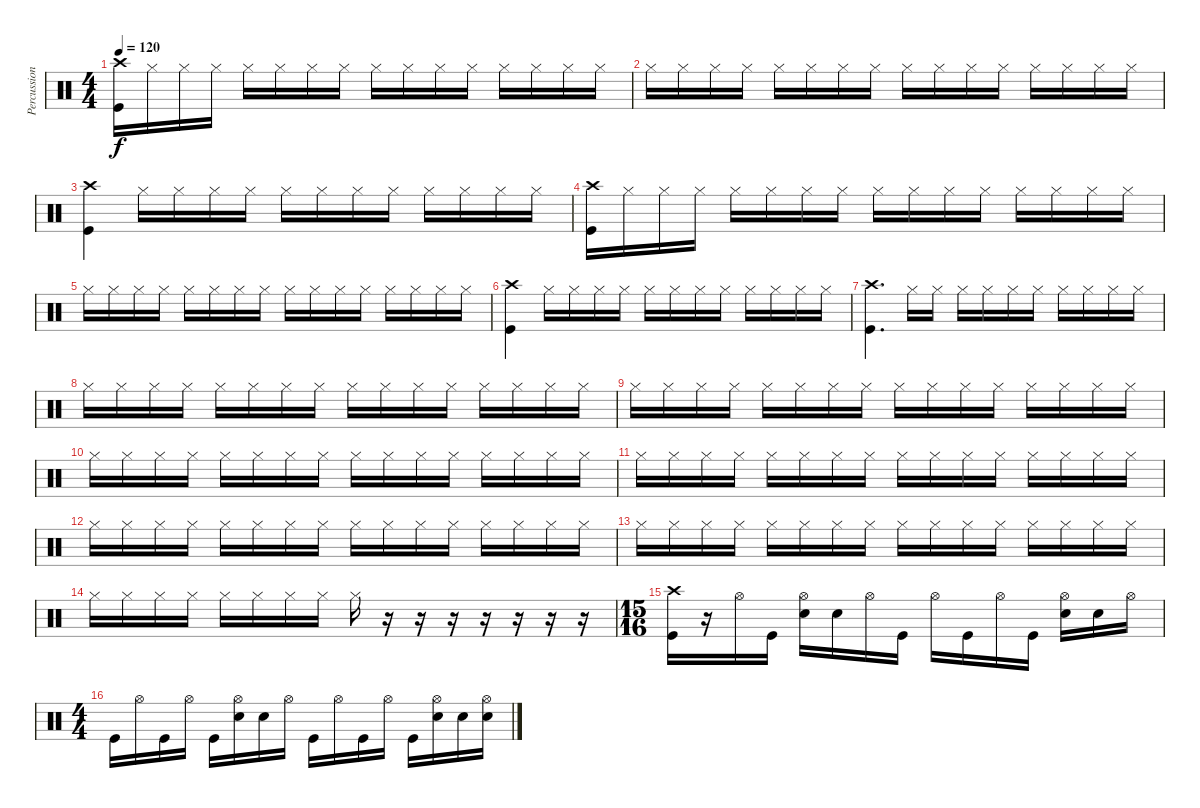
\track ("Percussion" "Percussion") {instrument percussion}
\staff {score}
\articulation defaults
\ts (4 4)
\tempo 120
\clef neutral
\ks c
("Crash high (hit)" "Kick (hit)").16{dy f} "Hi-Hat (closed)".16 "Hi-Hat (closed)".16 "Hi-Hat (closed)".16 "Hi-Hat (closed)".16 "Hi-Hat (closed)".16 "Hi-Hat (closed)".16 "Hi-Hat (closed)".16 "Hi-Hat (closed)".16 "Hi-Hat (closed)".16 "Hi-Hat (closed)".16 "Hi-Hat (closed)".16 "Hi-Hat (closed)".16 "Hi-Hat (closed)".16 "Hi-Hat (closed)".16 "Hi-Hat (closed)".16 |
"Hi-Hat (closed)".16 "Hi-Hat (closed)".16 "Hi-Hat (closed)".16 "Hi-Hat (closed)".16 "Hi-Hat (closed)".16 "Hi-Hat (closed)".16 "Hi-Hat (closed)".16 "Hi-Hat (closed)".16 "Hi-Hat (closed)".16 "Hi-Hat (closed)".16 "Hi-Hat (closed)".16 "Hi-Hat (closed)".16 "Hi-Hat (closed)".16 "Hi-Hat (closed)".16 "Hi-Hat (closed)".16 "Hi-Hat (closed)".16 |
("Crash high (hit)" "Kick (hit)").4 "Hi-Hat (closed)".16 "Hi-Hat (closed)".16 "Hi-Hat (closed)".16 "Hi-Hat (closed)".16 "Hi-Hat (closed)".16 "Hi-Hat (closed)".16 "Hi-Hat (closed)".16 "Hi-Hat (closed)".16 "Hi-Hat (closed)".16 "Hi-Hat (closed)".16 "Hi-Hat (closed)".16 "Hi-Hat (closed)".16 |
("Crash high (hit)" "Kick (hit)").16 "Hi-Hat (closed)".16 "Hi-Hat (closed)".16 "Hi-Hat (closed)".16 "Hi-Hat (closed)".16 "Hi-Hat (closed)".16 "Hi-Hat (closed)".16 "Hi-Hat (closed)".16 "Hi-Hat (closed)".16 "Hi-Hat (closed)".16 "Hi-Hat (closed)".16 "Hi-Hat (closed)".16 "Hi-Hat (closed)".16 "Hi-Hat (closed)".16 "Hi-Hat (closed)".16 "Hi-Hat (closed)".16 |
"Hi-Hat (closed)".16 "Hi-Hat (closed)".16 "Hi-Hat (closed)".16 "Hi-Hat (closed)".16 "Hi-Hat (closed)".16 "Hi-Hat (closed)".16 "Hi-Hat (closed)".16 "Hi-Hat (closed)".16 "Hi-Hat (closed)".16 "Hi-Hat (closed)".16 "Hi-Hat (closed)".16 "Hi-Hat (closed)".16 "Hi-Hat (closed)".16 "Hi-Hat (closed)".16 "Hi-Hat (closed)".16 "Hi-Hat (closed)".16 |
("Crash high (hit)" "Kick (hit)").4 "Hi-Hat (closed)".16 "Hi-Hat (closed)".16 "Hi-Hat (closed)".16 "Hi-Hat (closed)".16 "Hi-Hat (closed)".16 "Hi-Hat (closed)".16 "Hi-Hat (closed)".16 "Hi-Hat (closed)".16 "Hi-Hat (closed)".16 "Hi-Hat (closed)".16 "Hi-Hat (closed)".16 "Hi-Hat (closed)".16 |
("Crash high (hit)" "Kick (hit)").4{d} "Hi-Hat (closed)".16 "Hi-Hat (closed)".16 "Hi-Hat (closed)".16 "Hi-Hat (closed)".16 "Hi-Hat (closed)".16 "Hi-Hat (closed)".16 "Hi-Hat (closed)".16 "Hi-Hat (closed)".16 "Hi-Hat (closed)".16 "Hi-Hat (closed)".16 |
"Hi-Hat (closed)".16 "Hi-Hat (closed)".16 "Hi-Hat (closed)".16 "Hi-Hat (closed)".16 "Hi-Hat (closed)".16 "Hi-Hat (closed)".16 "Hi-Hat (closed)".16 "Hi-Hat (closed)".16 "Hi-Hat (closed)".16 "Hi-Hat (closed)".16 "Hi-Hat (closed)".16 "Hi-Hat (closed)".16 "Hi-Hat (closed)".16 "Hi-Hat (closed)".16 "Hi-Hat (closed)".16 "Hi-Hat (closed)".16 |
"Hi-Hat (closed)".16 "Hi-Hat (closed)".16 "Hi-Hat (closed)".16 "Hi-Hat (closed)".16 "Hi-Hat (closed)".16 "Hi-Hat (closed)".16 "Hi-Hat (closed)".16 "Hi-Hat (closed)".16 "Hi-Hat (closed)".16 "Hi-Hat (closed)".16 "Hi-Hat (closed)".16 "Hi-Hat (closed)".16 "Hi-Hat (closed)".16 "Hi-Hat (closed)".16 "Hi-Hat (closed)".16 "Hi-Hat (closed)".16 |
"Hi-Hat (closed)".16 "Hi-Hat (closed)".16 "Hi-Hat (closed)".16 "Hi-Hat (closed)".16 "Hi-Hat (closed)".16 "Hi-Hat (closed)".16 "Hi-Hat (closed)".16 "Hi-Hat (closed)".16 "Hi-Hat (closed)".16 "Hi-Hat (closed)".16 "Hi-Hat (closed)".16 "Hi-Hat (closed)".16 "Hi-Hat (closed)".16 "Hi-Hat (closed)".16 "Hi-Hat (closed)".16 "Hi-Hat (closed)".16 |
"Hi-Hat (closed)".16 "Hi-Hat (closed)".16 "Hi-Hat (closed)".16 "Hi-Hat (closed)".16 "Hi-Hat (closed)".16 "Hi-Hat (closed)".16 "Hi-Hat (closed)".16 "Hi-Hat (closed)".16 "Hi-Hat (closed)".16 "Hi-Hat (closed)".16 "Hi-Hat (closed)".16 "Hi-Hat (closed)".16 "Hi-Hat (closed)".16 "Hi-Hat (closed)".16 "Hi-Hat (closed)".16 "Hi-Hat (closed)".16 |
"Hi-Hat (closed)".16 "Hi-Hat (closed)".16 "Hi-Hat (closed)".16 "Hi-Hat (closed)".16 "Hi-Hat (closed)".16 "Hi-Hat (closed)".16 "Hi-Hat (closed)".16 "Hi-Hat (closed)".16 "Hi-Hat (closed)".16 "Hi-Hat (closed)".16 "Hi-Hat (closed)".16 "Hi-Hat (closed)".16 "Hi-Hat (closed)".16 "Hi-Hat (closed)".16 "Hi-Hat (closed)".16 "Hi-Hat (closed)".16 |
"Hi-Hat (closed)".16 "Hi-Hat (closed)".16 "Hi-Hat (closed)".16 "Hi-Hat (closed)".16 "Hi-Hat (closed)".16 "Hi-Hat (closed)".16 "Hi-Hat (closed)".16 "Hi-Hat (closed)".16 "Hi-Hat (closed)".16 "Hi-Hat (closed)".16 "Hi-Hat (closed)".16 "Hi-Hat (closed)".16 "Hi-Hat (closed)".16 "Hi-Hat (closed)".16 "Hi-Hat (closed)".16 "Hi-Hat (closed)".16 |
"Hi-Hat (closed)".16 "Hi-Hat (closed)".16 "Hi-Hat (closed)".16 "Hi-Hat (closed)".16 "Hi-Hat (closed)".16 "Hi-Hat (closed)".16 "Hi-Hat (closed)".16 "Hi-Hat (closed)".16 "Hi-Hat (closed)".16 r.16 r.16 r.16 r.16 r.16 r.16 r.16 |
\ts (15 16)
("Crash high (hit)" "Kick (hit)").16 r.16 "Hi-Hat (open)".16 "Kick (hit)".16 ("Hi-Hat (open)" "Snare (hit) 2").16 "Snare (hit) 2".16 "Hi-Hat (open)".16 "Kick (hit)".16 "Hi-Hat (open)".16 "Kick (hit)".16 "Hi-Hat (open)".16 "Kick (hit)".16 ("Hi-Hat (open)" "Snare (hit) 2").16 "Snare (hit) 2".16 "Hi-Hat (open)".16 |
\ts (4 4)
"Kick (hit)".16 "Hi-Hat (open)".16 "Kick (hit)".16 "Hi-Hat (open)".16 "Kick (hit)".16 ("Hi-Hat (open)" "Snare (hit) 2").16 "Snare (hit) 2".16 "Hi-Hat (open)".16 "Kick (hit)".16 "Hi-Hat (open)".16 "Kick (hit)".16 "Hi-Hat (open)".16 "Kick (hit)".16 ("Hi-Hat (open)" "Snare (hit) 2").16 "Snare (hit) 2".16 ("Hi-Hat (open)" "Snare (hit) 2").16
